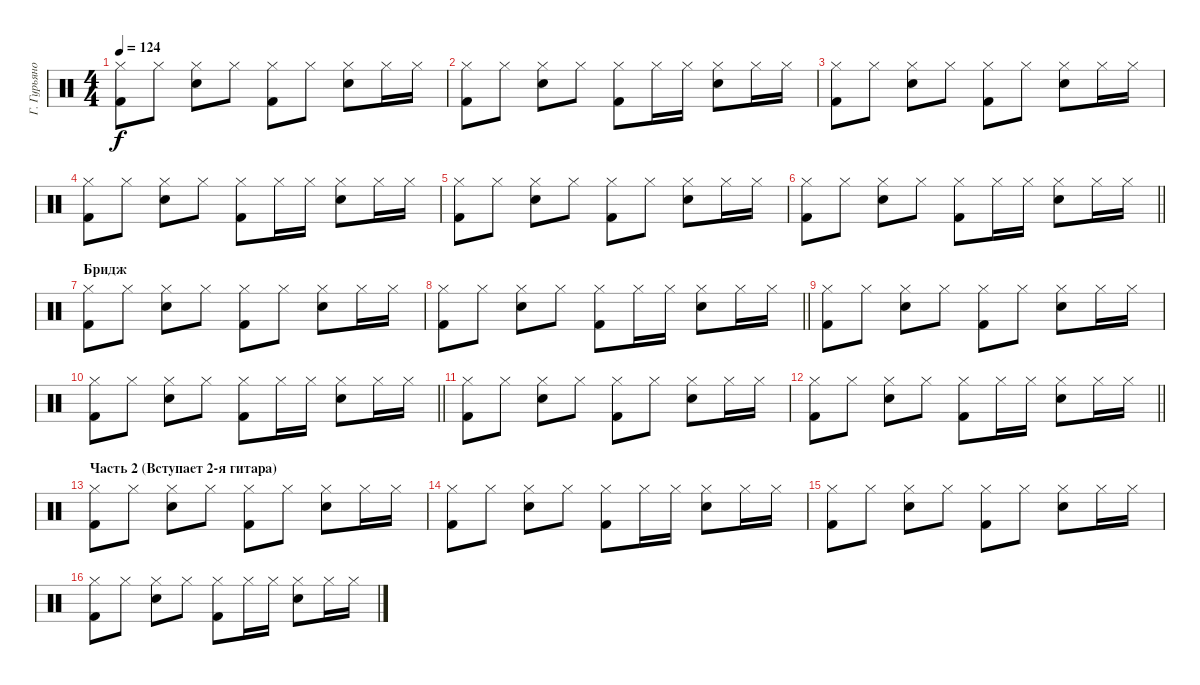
\track ("Г. Гурьянов" "Г. Гурьяно") {instrument percussion}
\staff
\articulation defaults
\ts (4 4)
\tempo 124
\clef neutral
\ks c
("Hi-Hat (closed)" "Kick (hit) 2").8{dy f} "Hi-Hat (closed)".8 ("Hi-Hat (closed)" "Snare (hit) 2").8 "Hi-Hat (closed)".8 ("Hi-Hat (closed)" "Kick (hit) 2").8 "Hi-Hat (closed)".8 ("Hi-Hat (closed)" "Snare (hit) 2").8 "Hi-Hat (closed)".16 "Hi-Hat (closed)".16 |
("Hi-Hat (closed)" "Kick (hit) 2").8 "Hi-Hat (closed)".8 ("Hi-Hat (closed)" "Snare (hit) 2").8 "Hi-Hat (closed)".8 ("Hi-Hat (closed)" "Kick (hit) 2").8 "Hi-Hat (closed)".16 "Hi-Hat (closed)".16 ("Hi-Hat (closed)" "Snare (hit) 2").8 "Hi-Hat (closed)".16 "Hi-Hat (closed)".16 |
("Hi-Hat (closed)" "Kick (hit) 2").8 "Hi-Hat (closed)".8 ("Hi-Hat (closed)" "Snare (hit) 2").8 "Hi-Hat (closed)".8 ("Hi-Hat (closed)" "Kick (hit) 2").8 "Hi-Hat (closed)".8 ("Hi-Hat (closed)" "Snare (hit) 2").8 "Hi-Hat (closed)".16 "Hi-Hat (closed)".16 |
("Hi-Hat (closed)" "Kick (hit) 2").8 "Hi-Hat (closed)".8 ("Hi-Hat (closed)" "Snare (hit) 2").8 "Hi-Hat (closed)".8 ("Hi-Hat (closed)" "Kick (hit) 2").8 "Hi-Hat (closed)".16 "Hi-Hat (closed)".16 ("Hi-Hat (closed)" "Snare (hit) 2").8 "Hi-Hat (closed)".16 "Hi-Hat (closed)".16 |
("Hi-Hat (closed)" "Kick (hit) 2").8 "Hi-Hat (closed)".8 ("Hi-Hat (closed)" "Snare (hit) 2").8 "Hi-Hat (closed)".8 ("Hi-Hat (closed)" "Kick (hit) 2").8 "Hi-Hat (closed)".8 ("Hi-Hat (closed)" "Snare (hit) 2").8 "Hi-Hat (closed)".16 "Hi-Hat (closed)".16 |
\barLineRight lightlight
("Hi-Hat (closed)" "Kick (hit) 2").8 "Hi-Hat (closed)".8 ("Hi-Hat (closed)" "Snare (hit) 2").8 "Hi-Hat (closed)".8 ("Hi-Hat (closed)" "Kick (hit) 2").8 "Hi-Hat (closed)".16 "Hi-Hat (closed)".16 ("Hi-Hat (closed)" "Snare (hit) 2").8 "Hi-Hat (closed)".16 "Hi-Hat (closed)".16 |
\section ("" "Бридж")
("Hi-Hat (closed)" "Kick (hit) 2").8 "Hi-Hat (closed)".8 ("Hi-Hat (closed)" "Snare (hit) 2").8 "Hi-Hat (closed)".8 ("Hi-Hat (closed)" "Kick (hit) 2").8 "Hi-Hat (closed)".8 ("Hi-Hat (closed)" "Snare (hit) 2").8 "Hi-Hat (closed)".16 "Hi-Hat (closed)".16 |
\barLineRight lightlight
("Hi-Hat (closed)" "Kick (hit) 2").8 "Hi-Hat (closed)".8 ("Hi-Hat (closed)" "Snare (hit) 2").8 "Hi-Hat (closed)".8 ("Hi-Hat (closed)" "Kick (hit) 2").8 "Hi-Hat (closed)".16 "Hi-Hat (closed)".16 ("Hi-Hat (closed)" "Snare (hit) 2").8 "Hi-Hat (closed)".16 "Hi-Hat (closed)".16 |
("Hi-Hat (closed)" "Kick (hit) 2").8 "Hi-Hat (closed)".8 ("Hi-Hat (closed)" "Snare (hit) 2").8 "Hi-Hat (closed)".8 ("Hi-Hat (closed)" "Kick (hit) 2").8 "Hi-Hat (closed)".8 ("Hi-Hat (closed)" "Snare (hit) 2").8 "Hi-Hat (closed)".16 "Hi-Hat (closed)".16 |
\barLineRight lightlight
("Hi-Hat (closed)" "Kick (hit) 2").8 "Hi-Hat (closed)".8 ("Hi-Hat (closed)" "Snare (hit) 2").8 "Hi-Hat (closed)".8 ("Hi-Hat (closed)" "Kick (hit) 2").8 "Hi-Hat (closed)".16 "Hi-Hat (closed)".16 ("Hi-Hat (closed)" "Snare (hit) 2").8 "Hi-Hat (closed)".16 "Hi-Hat (closed)".16 |
("Hi-Hat (closed)" "Kick (hit) 2").8 "Hi-Hat (closed)".8 ("Hi-Hat (closed)" "Snare (hit) 2").8 "Hi-Hat (closed)".8 ("Hi-Hat (closed)" "Kick (hit) 2").8 "Hi-Hat (closed)".8 ("Hi-Hat (closed)" "Snare (hit) 2").8 "Hi-Hat (closed)".16 "Hi-Hat (closed)".16 |
\barLineRight lightlight
("Hi-Hat (closed)" "Kick (hit) 2").8 "Hi-Hat (closed)".8 ("Hi-Hat (closed)" "Snare (hit) 2").8 "Hi-Hat (closed)".8 ("Hi-Hat (closed)" "Kick (hit) 2").8 "Hi-Hat (closed)".16 "Hi-Hat (closed)".16 ("Hi-Hat (closed)" "Snare (hit) 2").8 "Hi-Hat (closed)".16 "Hi-Hat (closed)".16 |
\section ("" "Часть 2 (Вступает 2-я гитара)")
("Hi-Hat (closed)" "Kick (hit) 2").8 "Hi-Hat (closed)".8 ("Hi-Hat (closed)" "Snare (hit) 2").8 "Hi-Hat (closed)".8 ("Hi-Hat (closed)" "Kick (hit) 2").8 "Hi-Hat (closed)".8 ("Hi-Hat (closed)" "Snare (hit) 2").8 "Hi-Hat (closed)".16 "Hi-Hat (closed)".16 |
("Hi-Hat (closed)" "Kick (hit) 2").8 "Hi-Hat (closed)".8 ("Hi-Hat (closed)" "Snare (hit) 2").8 "Hi-Hat (closed)".8 ("Hi-Hat (closed)" "Kick (hit) 2").8 "Hi-Hat (closed)".16 "Hi-Hat (closed)".16 ("Hi-Hat (closed)" "Snare (hit) 2").8 "Hi-Hat (closed)".16 "Hi-Hat (closed)".16 |
("Hi-Hat (closed)" "Kick (hit) 2").8 "Hi-Hat (closed)".8 ("Hi-Hat (closed)" "Snare (hit) 2").8 "Hi-Hat (closed)".8 ("Hi-Hat (closed)" "Kick (hit) 2").8 "Hi-Hat (closed)".8 ("Hi-Hat (closed)" "Snare (hit) 2").8 "Hi-Hat (closed)".16 "Hi-Hat (closed)".16 |
("Hi-Hat (closed)" "Kick (hit) 2").8 "Hi-Hat (closed)".8 ("Hi-Hat (closed)" "Snare (hit) 2").8 "Hi-Hat (closed)".8 ("Hi-Hat (closed)" "Kick (hit) 2").8 "Hi-Hat (closed)".16 "Hi-Hat (closed)".16 ("Hi-Hat (closed)" "Snare (hit) 2").8 "Hi-Hat (closed)".16 "Hi-Hat (closed)".16
